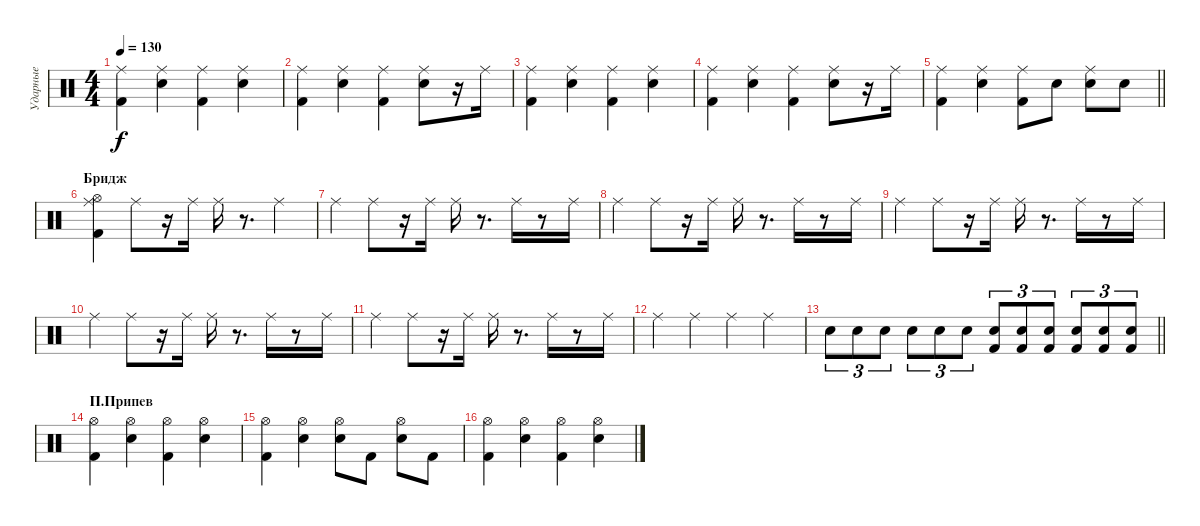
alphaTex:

\track ("Ударные" "Ударные") {instrument percussion}
\staff {score}
\articulation defaults
\ts (4 4)
\tempo 130
\clef neutral
\ks c
("Ride (middle)" "Kick (hit) 2").4{dy f} ("Ride (middle)" "Snare (hit) 2").4 ("Ride (middle)" "Kick (hit) 2").4 ("Ride (middle)" "Snare (hit) 2").4 |
("Ride (middle)" "Kick (hit) 2").4 ("Ride (middle)" "Snare (hit) 2").4 ("Ride (middle)" "Kick (hit) 2").4 ("Ride (middle)" "Snare (hit) 2").8 r.16 "Ride (middle)".16 |
("Ride (middle)" "Kick (hit) 2").4 ("Ride (middle)" "Snare (hit) 2").4 ("Ride (middle)" "Kick (hit) 2").4 ("Ride (middle)" "Snare (hit) 2").4 |
("Ride (middle)" "Kick (hit) 2").4 ("Ride (middle)" "Snare (hit) 2").4 ("Ride (middle)" "Kick (hit) 2").4 ("Ride (middle)" "Snare (hit) 2").8 r.16 "Ride (middle)".16 |
\barLineRight lightlight
("Ride (middle)" "Kick (hit) 2").4 ("Ride (middle)" "Snare (hit) 2").4 ("Ride (middle)" "Kick (hit) 2").8 "Snare (hit) 2".8 ("Ride (middle)" "Snare (hit) 2").8 "Snare (hit) 2".8 |
\section ("" "Бридж")
("Ride (middle)" "Kick (hit) 2" "Hi-Hat (open)").4 "Ride (middle)".8 r.16 "Ride (middle)".16 "Ride (middle)".16 r.8{d} "Ride (middle)".4 |
"Ride (middle)".4 "Ride (middle)".8 r.16 "Ride (middle)".16 "Ride (middle)".16 r.8{d} "Ride (middle)".16 r.8 "Ride (middle)".16 |
"Ride (middle)".4 "Ride (middle)".8 r.16 "Ride (middle)".16 "Ride (middle)".16 r.8{d} "Ride (middle)".16 r.8 "Ride (middle)".16 |
"Ride (middle)".4 "Ride (middle)".8 r.16 "Ride (middle)".16 "Ride (middle)".16 r.8{d} "Ride (middle)".16 r.8 "Ride (middle)".16 |
"Ride (middle)".4 "Ride (middle)".8 r.16 "Ride (middle)".16 "Ride (middle)".16 r.8{d} "Ride (middle)".16 r.8 "Ride (middle)".16 |
"Ride (middle)".4 "Ride (middle)".8 r.16 "Ride (middle)".16 "Ride (middle)".16 r.8{d} "Ride (middle)".16 r.8 "Ride (middle)".16 |
"Ride (middle)".4 "Ride (middle)".4 "Ride (middle)".4 "Ride (middle)".4 |
\barLineRight lightlight "Snare (hit) 2".8{tu (3 2)} "Snare (hit) 2".8{tu (3 2)} "Snare (hit) 2".8{tu (3 2)} "Snare (hit) 2".8{tu (3 2)} "Snare (hit) 2".8{tu (3 2)} "Snare (hit) 2".8{tu (3 2)}
("Electric Snare (hit)" "Kick (hit) 2").8{tu (3 2)} ("Electric Snare (hit)" "Kick (hit) 2").8{tu (3 2)} ("Electric Snare (hit)" "Kick (hit) 2").8{tu (3 2)} ("Electric Snare (hit)" "Kick (hit) 2").8{tu (3 2)} ("Electric Snare (hit)" "Kick (hit) 2").8{tu (3 2)} ("Electric Snare (hit)" "Kick (hit) 2").8{tu (3 2)} |
\section ("" "П.Припев")
("Hi-Hat (open)" "Kick (hit) 2").4 ("Hi-Hat (open)" "Snare (hit) 2").4 ("Hi-Hat (open)" "Kick (hit) 2").4 ("Hi-Hat (open)" "Snare (hit) 2").4 |
("Hi-Hat (open)" "Kick (hit) 2").4 ("Hi-Hat (open)" "Snare (hit) 2").4 ("Hi-Hat (open)" "Snare (hit) 2").8 "Kick (hit) 2".8 ("Hi-Hat (open)" "Snare (hit) 2").8 "Kick (hit) 2".8 |
("Hi-Hat (open)" "Kick (hit) 2").4 ("Hi-Hat (open)" "Snare (hit) 2").4 ("Hi-Hat (open)" "Kick (hit) 2").4 ("Hi-Hat (open)" "Snare (hit) 2").4
